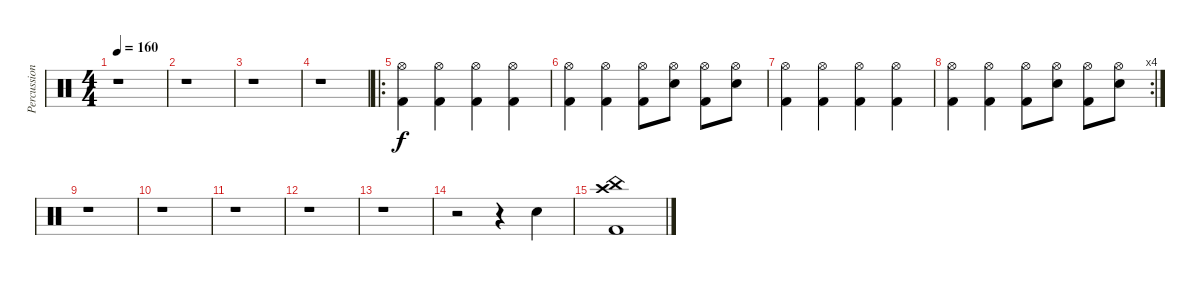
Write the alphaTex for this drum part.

\track ("Percussions" "Percussion") {instrument percussion}
\staff {score}
\articulation defaults
\ts (4 4)
\tempo 160
\clef neutral
\ks c
r.1{dy f} |
r.1 |
r.1 |
r.1 |
\ro
("Kick (hit) 2" "Hi-Hat (open)").4 ("Kick (hit) 2" "Hi-Hat (open)").4 ("Kick (hit) 2" "Hi-Hat (open)").4 ("Kick (hit) 2" "Hi-Hat (open)").4 |
("Kick (hit) 2" "Hi-Hat (open)").4 ("Kick (hit) 2" "Hi-Hat (open)").4 ("Kick (hit) 2" "Hi-Hat (open)").8 ("Snare (hit) 2" "Hi-Hat (open)").8 ("Kick (hit) 2" "Hi-Hat (open)").8 ("Snare (hit) 2" "Hi-Hat (open)").8 |
("Kick (hit) 2" "Hi-Hat (open)").4 ("Kick (hit) 2" "Hi-Hat (open)").4 ("Kick (hit) 2" "Hi-Hat (open)").4 ("Kick (hit) 2" "Hi-Hat (open)").4 |
\rc 4
("Kick (hit) 2" "Hi-Hat (open)").4 ("Kick (hit) 2" "Hi-Hat (open)").4 ("Kick (hit) 2" "Hi-Hat (open)").8 ("Snare (hit) 2" "Hi-Hat (open)").8 ("Kick (hit) 2" "Hi-Hat (open)").8 ("Snare (hit) 2" "Hi-Hat (open)").8 |
r.1 |
r.1 |
r.1 |
r.1 |
r.1 |
r.2 r.4 "Snare (hit) 2".4 |
("Crash high (hit)" "China (hit)" "Kick (hit) 2").1
